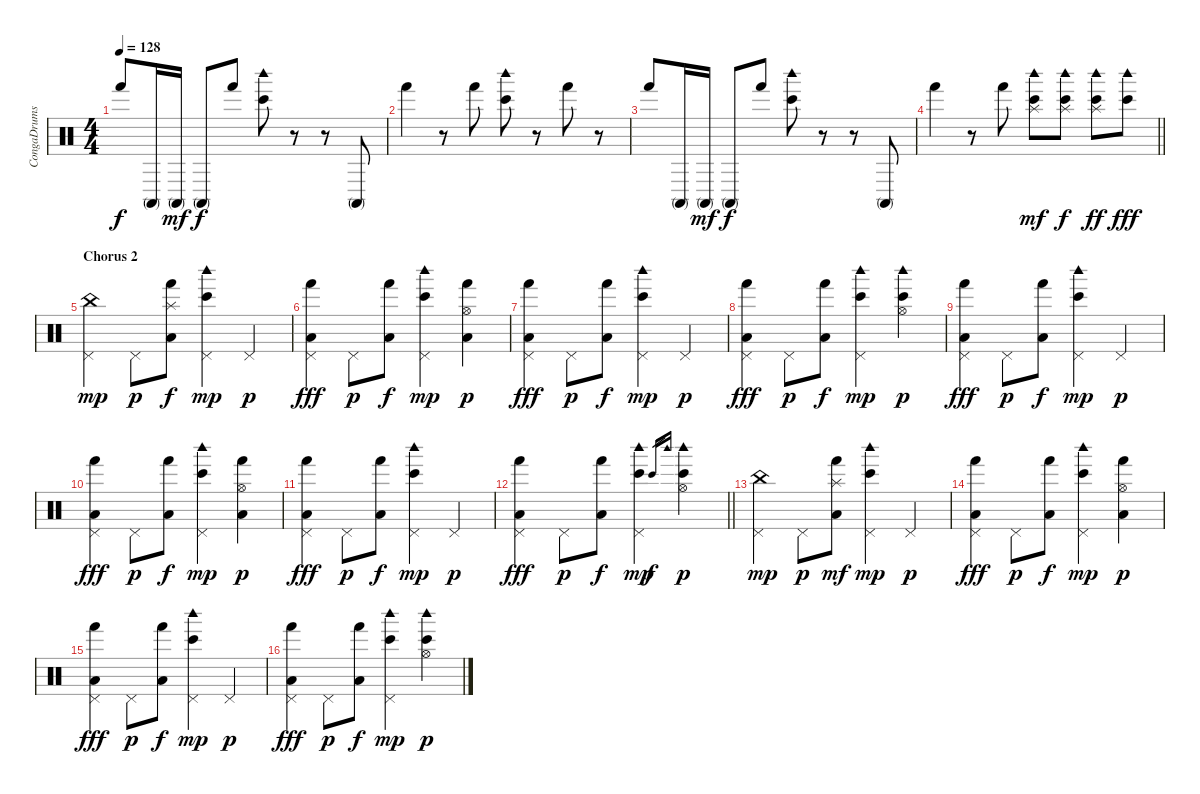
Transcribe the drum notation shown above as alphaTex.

\track ("CongaDrums" "CongaDrums") {instrument percussion}
\staff {score}
\articulation defaults
\ts (4 4)
\tempo 128
\clef neutral
\ks c "Hand (hit)".8{dy f} "Conga high (mute)".16 "Conga high (mute)".16{dy mf} "Conga high (mute)".8{dy f} "Hand (hit)".8
("Bongo High (hit)" "Woodblock high (hit)").8 r.8 r.8 "Conga high (mute)".8 |
"Hand (hit)".4 r.8 "Hand (hit)".8 ("Bongo High (hit)" "Woodblock high (hit)").8 r.8 "Hand (hit)".8 r.8 |
"Hand (hit)".8 "Conga high (mute)".16 "Conga high (mute)".16{dy mf} "Conga high (mute)".8{dy f} "Hand (hit)".8 ("Bongo High (hit)" "Woodblock high (hit)").8 r.8 r.8 "Conga high (mute)".8 |
\barLineRight lightlight "Hand (hit)".4
r.8 "Hand (hit)".8 ("Bongo High (hit)" "Woodblock high (hit)" "Splash (hit)").8{dy mf} ("Bongo High (hit)" "Woodblock high (hit)" "Splash (hit)").8{dy f} ("Bongo High (hit)" "Woodblock high (hit)" "Splash (hit)").8{dy ff} ("Bongo High (hit)" "Woodblock high (hit)").8{dy fff} |
\section ("" "Chorus 2 ")
("China (hit)" "Pedal Hi-Hat (hit)").4{dy mp} "Pedal Hi-Hat (hit)".8{dy p} ("Splash (hit)" "Hand (hit)" "Low Floor Tom (hit)").8{dy f} ("Bongo High (hit)" "Woodblock high (hit)" "Pedal Hi-Hat (hit)").4{dy mp} "Pedal Hi-Hat (hit)".4{dy p} |
("Pedal Hi-Hat (hit)" "Hand (hit)" "Low Floor Tom (hit)").4{dy fff} "Pedal Hi-Hat (hit)".8{dy p} ("Hand (hit)" "Low Floor Tom (hit)").8{dy f} ("Bongo High (hit)" "Woodblock high (hit)" "Pedal Hi-Hat (hit)").4{dy mp} ("Hi-Hat (open)" "Hand (hit)" "Low Floor Tom (hit)").4{dy p} |
("Pedal Hi-Hat (hit)" "Hand (hit)" "Low Floor Tom (hit)").4{dy fff} "Pedal Hi-Hat (hit)".8{dy p} ("Hand (hit)" "Low Floor Tom (hit)").8{dy f} ("Bongo High (hit)" "Woodblock high (hit)" "Pedal Hi-Hat (hit)").4{dy mp} "Pedal Hi-Hat (hit)".4{dy p} |
("Pedal Hi-Hat (hit)" "Hand (hit)" "Low Floor Tom (hit)").4{dy fff} "Pedal Hi-Hat (hit)".8{dy p} ("Hand (hit)" "Low Floor Tom (hit)").8{dy f} ("Bongo High (hit)" "Woodblock high (hit)" "Pedal Hi-Hat (hit)").4{dy mp} ("Bongo High (hit)" "Woodblock high (hit)" "Hi-Hat (open)").4{dy p} |
("Pedal Hi-Hat (hit)" "Hand (hit)" "Low Floor Tom (hit)").4{dy fff} "Pedal Hi-Hat (hit)".8{dy p} ("Hand (hit)" "Low Floor Tom (hit)").8{dy f} ("Bongo High (hit)" "Woodblock high (hit)" "Pedal Hi-Hat (hit)").4{dy mp} "Pedal Hi-Hat (hit)".4{dy p} |
("Pedal Hi-Hat (hit)" "Hand (hit)" "Low Floor Tom (hit)").4{dy fff} "Pedal Hi-Hat (hit)".8{dy p} ("Hand (hit)" "Low Floor Tom (hit)").8{dy f} ("Bongo High (hit)" "Woodblock high (hit)" "Pedal Hi-Hat (hit)").4{dy mp} ("Hi-Hat (open)" "Hand (hit)" "Low Floor Tom (hit)").4{dy p} |
("Pedal Hi-Hat (hit)" "Hand (hit)" "Low Floor Tom (hit)").4{dy fff} "Pedal Hi-Hat (hit)".8{dy p} ("Hand (hit)" "Low Floor Tom (hit)").8{dy f} ("Bongo High (hit)" "Woodblock high (hit)" "Pedal Hi-Hat (hit)").4{dy mp} "Pedal Hi-Hat (hit)".4{dy p} |
\barLineRight lightlight
("Pedal Hi-Hat (hit)" "Hand (hit)" "Low Floor Tom (hit)").4{dy fff} "Pedal Hi-Hat (hit)".8{dy p} ("Hand (hit)" "Low Floor Tom (hit)").8{dy f} ("Bongo High (hit)" "Woodblock high (hit)" "Pedal Hi-Hat (hit)").4{dy mp} "Bongo High (hit)".16{gr dy f} "Woodblock high (hit)".16{gr} ("Bongo High (hit)" "Woodblock high (hit)" "Hi-Hat (open)").4{dy p} |
("China (hit)" "Pedal Hi-Hat (hit)").4{dy mp} "Pedal Hi-Hat (hit)".8{dy p} ("Splash (hit)" "Hand (hit)" "Low Floor Tom (hit)").8{dy mf} ("Bongo High (hit)" "Woodblock high (hit)" "Pedal Hi-Hat (hit)").4{dy mp} "Pedal Hi-Hat (hit)".4{dy p} |
("Pedal Hi-Hat (hit)" "Hand (hit)" "Low Floor Tom (hit)").4{dy fff} "Pedal Hi-Hat (hit)".8{dy p} ("Hand (hit)" "Low Floor Tom (hit)").8{dy f} ("Bongo High (hit)" "Woodblock high (hit)" "Pedal Hi-Hat (hit)").4{dy mp} ("Hi-Hat (open)" "Hand (hit)" "Low Floor Tom (hit)").4{dy p} |
("Pedal Hi-Hat (hit)" "Hand (hit)" "Low Floor Tom (hit)").4{dy fff} "Pedal Hi-Hat (hit)".8{dy p} ("Hand (hit)" "Low Floor Tom (hit)").8{dy f} ("Bongo High (hit)" "Woodblock high (hit)" "Pedal Hi-Hat (hit)").4{dy mp} "Pedal Hi-Hat (hit)".4{dy p} |
("Pedal Hi-Hat (hit)" "Hand (hit)" "Low Floor Tom (hit)").4{dy fff} "Pedal Hi-Hat (hit)".8{dy p} ("Hand (hit)" "Low Floor Tom (hit)").8{dy f} ("Bongo High (hit)" "Woodblock high (hit)" "Pedal Hi-Hat (hit)").4{dy mp} ("Bongo High (hit)" "Woodblock high (hit)" "Hi-Hat (open)").4{dy p}
